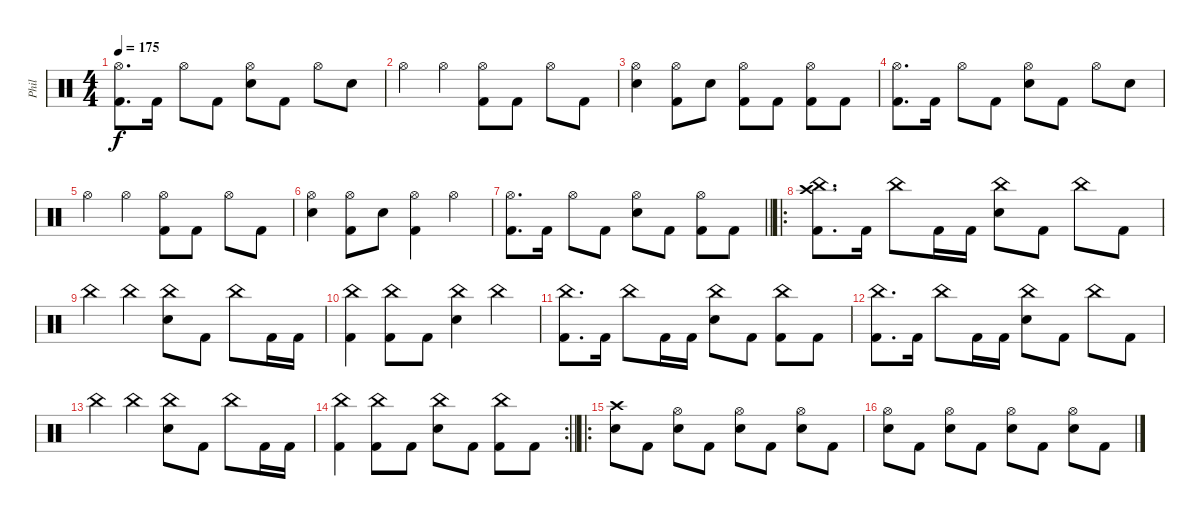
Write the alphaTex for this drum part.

\track ("Phil" "Phil") {instrument percussion}
\staff {score}
\articulation defaults
\ts (4 4)
\tempo 175
\clef neutral
\ks c
("Hi-Hat (open)" "Kick (hit) 2").8{d dy f} "Kick (hit) 2".16 "Hi-Hat (open)".8 "Kick (hit) 2".8 ("Hi-Hat (open)" "Electric Snare (hit)").8 "Kick (hit) 2".8 "Hi-Hat (open)".8 "Electric Snare (hit)".8 |
"Hi-Hat (open)".4 "Hi-Hat (open)".4 ("Hi-Hat (open)" "Kick (hit) 2").8 "Kick (hit) 2".8 "Hi-Hat (open)".8 "Kick (hit) 2".8 |
("Hi-Hat (open)" "Electric Snare (hit)").4 ("Hi-Hat (open)" "Kick (hit) 2").8 "Electric Snare (hit)".8 ("Hi-Hat (open)" "Kick (hit) 2").8 "Kick (hit) 2".8 ("Hi-Hat (open)" "Kick (hit) 2").8 "Kick (hit) 2".8 |
("Hi-Hat (open)" "Kick (hit) 2").8{d} "Kick (hit) 2".16 "Hi-Hat (open)".8 "Kick (hit) 2".8 ("Hi-Hat (open)" "Electric Snare (hit)").8 "Kick (hit) 2".8 "Hi-Hat (open)".8 "Electric Snare (hit)".8 |
"Hi-Hat (open)".4 "Hi-Hat (open)".4 ("Hi-Hat (open)" "Kick (hit) 2").8 "Kick (hit) 2".8 "Hi-Hat (open)".8 "Kick (hit) 2".8 |
("Hi-Hat (open)" "Electric Snare (hit)").4 ("Hi-Hat (open)" "Kick (hit) 2").8 "Electric Snare (hit)".8 ("Hi-Hat (open)" "Kick (hit) 2").4 "Hi-Hat (open)".4 |
\barLineRight lightlight
("Hi-Hat (open)" "Kick (hit) 2").8{d} "Kick (hit) 2".16 "Hi-Hat (open)".8 "Kick (hit) 2".8 ("Hi-Hat (open)" "Electric Snare (hit)").8 "Kick (hit) 2".8 ("Hi-Hat (open)" "Kick (hit) 2").8 "Kick (hit) 2".8 |
\ro
\section ("" "")
("China (hit)" "Crash high (hit)" "Kick (hit) 2").8{d volume 15} "Kick (hit) 2".16 "China (hit)".8 "Kick (hit) 2".16 "Kick (hit) 2".16 ("China (hit)" "Electric Snare (hit)").8 "Kick (hit) 2".8 "China (hit)".8 "Kick (hit) 2".8 |
"China (hit)".4 "China (hit)".4 ("China (hit)" "Electric Snare (hit)").8 "Kick (hit) 2".8 "China (hit)".8 "Kick (hit) 2".16 "Kick (hit) 2".16 |
("China (hit)" "Kick (hit) 2").4 ("China (hit)" "Kick (hit) 2").8 "Kick (hit) 2".8 ("China (hit)" "Electric Snare (hit)").4 "China (hit)".4 |
("China (hit)" "Kick (hit) 2").8{d} "Kick (hit) 2".16 "China (hit)".8 "Kick (hit) 2".16 "Kick (hit) 2".16 ("China (hit)" "Electric Snare (hit)").8 "Kick (hit) 2".8 ("China (hit)" "Kick (hit) 2").8 "Kick (hit) 2".8 |
("China (hit)" "Kick (hit) 2").8{d} "Kick (hit) 2".16 "China (hit)".8 "Kick (hit) 2".16 "Kick (hit) 2".16 ("China (hit)" "Electric Snare (hit)").8 "Kick (hit) 2".8 "China (hit)".8 "Kick (hit) 2".8 |
"China (hit)".4 "China (hit)".4 ("China (hit)" "Electric Snare (hit)").8 "Kick (hit) 2".8 "China (hit)".8 "Kick (hit) 2".16 "Kick (hit) 2".16 |
\rc 2
\barLineRight lightlight
("China (hit)" "Kick (hit) 2").4 ("China (hit)" "Kick (hit) 2").8 "Kick (hit) 2".8 ("China (hit)" "Electric Snare (hit)").8 "Kick (hit) 2".8 ("China (hit)" "Kick (hit) 2").8 "Kick (hit) 2".8 |
\ro
\section ("" "")
("Crash high (hit)" "Electric Snare (hit)").8 "Kick (hit) 2".8 ("Hi-Hat (open)" "Electric Snare (hit)").8 "Kick (hit) 2".8 ("Hi-Hat (open)" "Electric Snare (hit)").8 "Kick (hit) 2".8 ("Hi-Hat (open)" "Electric Snare (hit)").8 "Kick (hit) 2".8 |
("Hi-Hat (open)" "Electric Snare (hit)").8 "Kick (hit) 2".8 ("Hi-Hat (open)" "Electric Snare (hit)").8 "Kick (hit) 2".8 ("Hi-Hat (open)" "Electric Snare (hit)").8 "Kick (hit) 2".8 ("Hi-Hat (open)" "Electric Snare (hit)").8 "Kick (hit) 2".8
